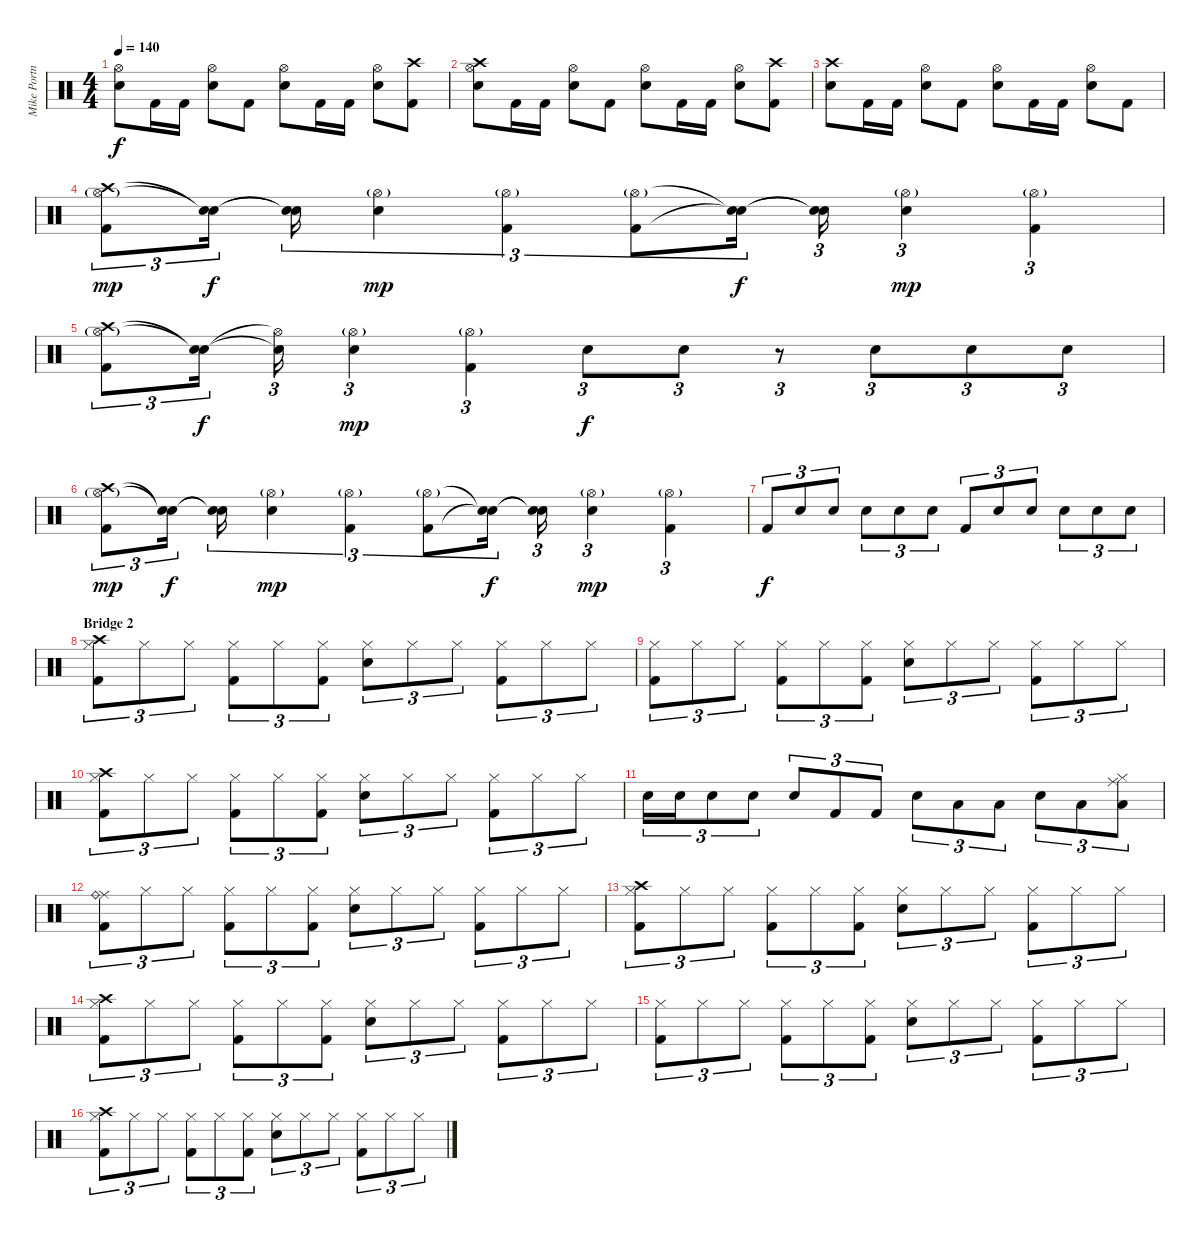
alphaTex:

\track ("Mike Portnoy Drums/Percussion" "Mike Portn") {instrument percussion}
\staff {score}
\articulation defaults
\ts (4 4)
\tempo 140
\clef neutral
\ks c
("Snare (hit) 2" "Hi-Hat (open)").8{dy f} "Kick (hit) 2".16 "Kick (hit) 2".16 ("Snare (hit) 2" "Hi-Hat (open)").8 "Kick (hit) 2".8 ("Snare (hit) 2" "Hi-Hat (open)").8 "Kick (hit) 2".16 "Kick (hit) 2".16 ("Snare (hit) 2" "Hi-Hat (open)").8 ("Kick (hit) 2" "Crash high (hit)").8 |
("Snare (hit) 2" "Crash high (hit)" "Hi-Hat (open)").8 "Kick (hit) 2".16 "Kick (hit) 2".16 ("Snare (hit) 2" "Hi-Hat (open)").8 "Kick (hit) 2".8 ("Snare (hit) 2" "Hi-Hat (open)").8 "Kick (hit) 2".16 "Kick (hit) 2".16 ("Snare (hit) 2" "Hi-Hat (open)").8 ("Kick (hit) 2" "Crash high (hit)").8 |
("Snare (hit) 2" "Crash high (hit)").8 "Kick (hit) 2".16 "Kick (hit) 2".16 ("Snare (hit) 2" "Hi-Hat (open)").8 "Kick (hit) 2".8 ("Snare (hit) 2" "Hi-Hat (open)").8 "Kick (hit) 2".16 "Kick (hit) 2".16 ("Snare (hit) 2" "Hi-Hat (open)").8 "Kick (hit) 2".8 |
("Hi-Hat (open)"{g} "Crash high (hit)" "Kick (hit) 2").8{tu (3 2) dy mp} ("Snare (hit)"{t} "Snare (hit)"{t}).16{tu (3 2) dy f} ("Snare (hit)"{t} "Snare (hit) 2"{t}).16{tu (3 2)} ("Hi-Hat (open)"{g} "Snare (hit) 2").4{tu (3 2) dy mp} ("Hi-Hat (open)"{g} "Kick (hit) 2").4{tu (3 2)} ("Hi-Hat (open)"{g} "Kick (hit) 2").8{tu (3 2)} ("Snare (hit)"{t} "Snare (hit)"{t}).16{tu (3 2) dy f} ("Snare (hit)"{t} "Snare (hit) 2"{t}).16{tu (3 2)} ("Hi-Hat (open)"{g} "Snare (hit) 2").4{tu (3 2) dy mp} ("Hi-Hat (open)"{g} "Kick (hit) 2").4{tu (3 2)} |
("Hi-Hat (open)"{g} "Crash high (hit)" "Kick (hit) 2").8{tu (3 2)} ("Snare (hit)"{t} "Snare (hit)"{t}).16{tu (3 2) dy f} ("Hi-Hat (open)"{t} "Snare (hit) 2"{t}).16{tu (3 2)} ("Hi-Hat (open)"{g} "Snare (hit) 2").4{tu (3 2) dy mp} ("Hi-Hat (open)"{g} "Kick (hit) 2").4{tu (3 2)} "Snare (hit) 2".8{tu (3 2) dy f} "Snare (hit) 2".8{tu (3 2)} r.8{tu (3 2)} "Snare (hit) 2".8{tu (3 2)} "Snare (hit) 2".8{tu (3 2)} "Snare (hit) 2".8{tu (3 2)} |
("Hi-Hat (open)"{g} "Crash high (hit)" "Kick (hit) 2").8{tu (3 2) dy mp} ("Snare (hit)"{t} "Snare (hit)"{t}).16{tu (3 2) dy f} ("Snare (hit)"{t} "Snare (hit) 2"{t}).16{tu (3 2)} ("Hi-Hat (open)"{g} "Snare (hit) 2").4{tu (3 2) dy mp} ("Hi-Hat (open)"{g} "Kick (hit) 2").4{tu (3 2)} ("Hi-Hat (open)"{g} "Kick (hit) 2").8{tu (3 2)} ("Snare (hit)"{t} "Snare (hit)"{t}).16{tu (3 2) dy f} ("Snare (hit)"{t} "Snare (hit) 2"{t}).16{tu (3 2)} ("Hi-Hat (open)"{g} "Snare (hit) 2").4{tu (3 2) dy mp} ("Hi-Hat (open)"{g} "Kick (hit) 2").4{tu (3 2)} |
"Kick (hit) 2".8{tu (3 2) dy f} "Snare (hit) 2".8{tu (3 2)} "Snare (hit) 2".8{tu (3 2)} "Snare (hit) 2".8{tu (3 2)} "Snare (hit) 2".8{tu (3 2)} "Snare (hit) 2".8{tu (3 2)} "Kick (hit) 2".8{tu (3 2)} "Snare (hit) 2".8{tu (3 2)} "Snare (hit) 2".8{tu (3 2)} "Snare (hit) 2".8{tu (3 2)} "Snare (hit) 2".8{tu (3 2)} "Snare (hit) 2".8{tu (3 2)} |
\section ("" "Bridge 2")
("Crash high (hit)" "Hi-Hat (closed)" "Kick (hit) 2").8{tu (3 2)} "Hi-Hat (closed)".8{tu (3 2)} "Hi-Hat (closed)".8{tu (3 2)} ("Hi-Hat (closed)" "Kick (hit) 2").8{tu (3 2)} "Hi-Hat (closed)".8{tu (3 2)} ("Hi-Hat (closed)" "Kick (hit) 2").8{tu (3 2)} ("Hi-Hat (closed)" "Snare (hit) 2").8{tu (3 2)} "Hi-Hat (closed)".8{tu (3 2)} "Hi-Hat (closed)".8{tu (3 2)} ("Hi-Hat (closed)" "Kick (hit) 2").8{tu (3 2)} "Hi-Hat (closed)".8{tu (3 2)} "Hi-Hat (closed)".8{tu (3 2)} |
("Hi-Hat (closed)" "Kick (hit) 2").8{tu (3 2)} "Hi-Hat (closed)".8{tu (3 2)} "Hi-Hat (closed)".8{tu (3 2)} ("Hi-Hat (closed)" "Kick (hit) 2").8{tu (3 2)} "Hi-Hat (closed)".8{tu (3 2)} ("Hi-Hat (closed)" "Kick (hit) 2").8{tu (3 2)} ("Hi-Hat (closed)" "Snare (hit) 2").8{tu (3 2)} "Hi-Hat (closed)".8{tu (3 2)} "Hi-Hat (closed)".8{tu (3 2)} ("Hi-Hat (closed)" "Kick (hit) 2").8{tu (3 2)} "Hi-Hat (closed)".8{tu (3 2)} "Hi-Hat (closed)".8{tu (3 2)} |
("Crash high (hit)" "Hi-Hat (closed)" "Kick (hit) 2").8{tu (3 2)} "Hi-Hat (closed)".8{tu (3 2)} "Hi-Hat (closed)".8{tu (3 2)} ("Hi-Hat (closed)" "Kick (hit) 2").8{tu (3 2)} "Hi-Hat (closed)".8{tu (3 2)} ("Hi-Hat (closed)" "Kick (hit) 2").8{tu (3 2)} ("Hi-Hat (closed)" "Snare (hit) 2").8{tu (3 2)} "Hi-Hat (closed)".8{tu (3 2)} "Hi-Hat (closed)".8{tu (3 2)} ("Hi-Hat (closed)" "Kick (hit) 2").8{tu (3 2)} "Hi-Hat (closed)".8{tu (3 2)} "Hi-Hat (closed)".8{tu (3 2)} |
"Snare (hit) 2".16{tu (3 2)} "Snare (hit) 2".16{tu (3 2)} "Snare (hit) 2".8{tu (3 2)} "Snare (hit) 2".8{tu (3 2)} "Snare (hit) 2".8{tu (3 2)} "Kick (hit) 2".8{tu (3 2)} "Kick (hit) 2".8{tu (3 2)} "Snare (hit) 2".8{tu (3 2)} "Low Tom (hit)".8{tu (3 2)} "Low Floor Tom (hit)".8{tu (3 2)} "Snare (hit) 2".8{tu (3 2)} "Low Tom (hit)".8{tu (3 2)} ("Ride (middle)" "Hi-Hat (closed)" "Low Floor Tom (hit)").8{tu (3 2)} |
("Ride (middle)" "Ride (bell)" "Kick (hit) 2").8{tu (3 2)} "Hi-Hat (closed)".8{tu (3 2)} "Hi-Hat (closed)".8{tu (3 2)} ("Hi-Hat (closed)" "Kick (hit) 2").8{tu (3 2)} "Hi-Hat (closed)".8{tu (3 2)} ("Hi-Hat (closed)" "Kick (hit) 2").8{tu (3 2)} ("Hi-Hat (closed)" "Snare (hit) 2").8{tu (3 2)} "Hi-Hat (closed)".8{tu (3 2)} "Hi-Hat (closed)".8{tu (3 2)} ("Hi-Hat (closed)" "Kick (hit) 2").8{tu (3 2)} "Hi-Hat (closed)".8{tu (3 2)} "Hi-Hat (closed)".8{tu (3 2)} |
("Crash high (hit)" "Hi-Hat (closed)" "Kick (hit) 2").8{tu (3 2)} "Hi-Hat (closed)".8{tu (3 2)} "Hi-Hat (closed)".8{tu (3 2)} ("Hi-Hat (closed)" "Kick (hit) 2").8{tu (3 2)} "Hi-Hat (closed)".8{tu (3 2)} ("Hi-Hat (closed)" "Kick (hit) 2").8{tu (3 2)} ("Hi-Hat (closed)" "Snare (hit) 2").8{tu (3 2)} "Hi-Hat (closed)".8{tu (3 2)} "Hi-Hat (closed)".8{tu (3 2)} ("Hi-Hat (closed)" "Kick (hit) 2").8{tu (3 2)} "Hi-Hat (closed)".8{tu (3 2)} "Hi-Hat (closed)".8{tu (3 2)} |
("Crash high (hit)" "Hi-Hat (closed)" "Kick (hit) 2").8{tu (3 2)} "Hi-Hat (closed)".8{tu (3 2)} "Hi-Hat (closed)".8{tu (3 2)} ("Hi-Hat (closed)" "Kick (hit) 2").8{tu (3 2)} "Hi-Hat (closed)".8{tu (3 2)} ("Hi-Hat (closed)" "Kick (hit) 2").8{tu (3 2)} ("Hi-Hat (closed)" "Snare (hit) 2").8{tu (3 2)} "Hi-Hat (closed)".8{tu (3 2)} "Hi-Hat (closed)".8{tu (3 2)} ("Hi-Hat (closed)" "Kick (hit) 2").8{tu (3 2)} "Hi-Hat (closed)".8{tu (3 2)} "Hi-Hat (closed)".8{tu (3 2)} |
("Hi-Hat (closed)" "Kick (hit) 2").8{tu (3 2)} "Hi-Hat (closed)".8{tu (3 2)} "Hi-Hat (closed)".8{tu (3 2)} ("Hi-Hat (closed)" "Kick (hit) 2").8{tu (3 2)} "Hi-Hat (closed)".8{tu (3 2)} ("Hi-Hat (closed)" "Kick (hit) 2").8{tu (3 2)} ("Hi-Hat (closed)" "Snare (hit) 2").8{tu (3 2)} "Hi-Hat (closed)".8{tu (3 2)} "Hi-Hat (closed)".8{tu (3 2)} ("Hi-Hat (closed)" "Kick (hit) 2").8{tu (3 2)} "Hi-Hat (closed)".8{tu (3 2)} "Hi-Hat (closed)".8{tu (3 2)} |
("Crash high (hit)" "Hi-Hat (closed)" "Kick (hit) 2").8{tu (3 2)} "Hi-Hat (closed)".8{tu (3 2)} "Hi-Hat (closed)".8{tu (3 2)} ("Hi-Hat (closed)" "Kick (hit) 2").8{tu (3 2)} "Hi-Hat (closed)".8{tu (3 2)} ("Hi-Hat (closed)" "Kick (hit) 2").8{tu (3 2)} ("Hi-Hat (closed)" "Snare (hit) 2").8{tu (3 2)} "Hi-Hat (closed)".8{tu (3 2)} "Hi-Hat (closed)".8{tu (3 2)} ("Hi-Hat (closed)" "Kick (hit) 2").8{tu (3 2)} "Hi-Hat (closed)".8{tu (3 2)} "Hi-Hat (closed)".8{tu (3 2)}
